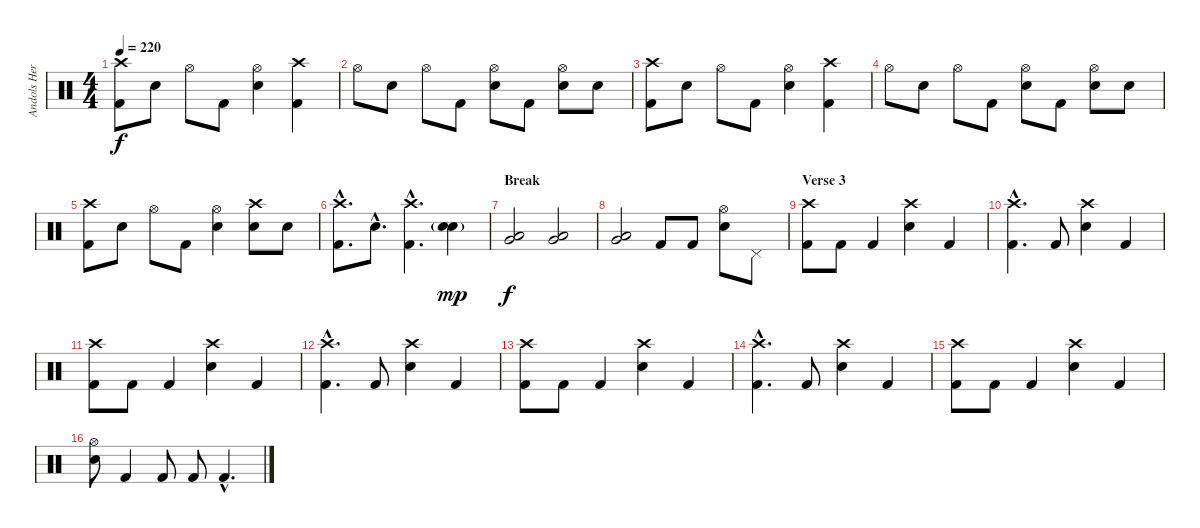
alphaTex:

\track ("Andols Herrick - Drums" "Andols Her") {instrument percussion}
\staff {score}
\articulation defaults
\ts (4 4)
\tempo 220
\clef neutral
\ks c
("Crash high (hit)" "Kick (hit) 2").8{dy f} "Snare (hit) 2".8 "Hi-Hat (open)".8 "Kick (hit) 2".8 ("Hi-Hat (open)" "Snare (hit) 2").4 ("Crash high (hit)" "Kick (hit) 2").4 |
"Hi-Hat (open)".8 "Snare (hit) 2".8 "Hi-Hat (open)".8 "Kick (hit) 2".8 ("Hi-Hat (open)" "Snare (hit) 2").8 "Kick (hit) 2".8 ("Hi-Hat (open)" "Snare (hit) 2").8 "Snare (hit) 2".8 |
("Crash high (hit)" "Kick (hit) 2").8 "Snare (hit) 2".8 "Hi-Hat (open)".8 "Kick (hit) 2".8 ("Hi-Hat (open)" "Snare (hit) 2").4 ("Crash high (hit)" "Kick (hit) 2").4 |
"Hi-Hat (open)".8 "Snare (hit) 2".8 "Hi-Hat (open)".8 "Kick (hit) 2".8 ("Hi-Hat (open)" "Snare (hit) 2").8 "Kick (hit) 2".8 ("Hi-Hat (open)" "Snare (hit) 2").8 "Snare (hit) 2".8 |
("Crash high (hit)" "Kick (hit) 2").8 "Snare (hit) 2".8 "Hi-Hat (open)".8 "Kick (hit) 2".8 ("Hi-Hat (open)" "Snare (hit) 2").4 ("Crash high (hit)" "Snare (hit) 2").8 "Snare (hit) 2".8 |
("Crash high (hit)"{hac} "Kick (hit) 2"{hac}).8{d} "Snare (hit) 2"{hac}.8{d} ("Crash high (hit)"{hac} "Kick (hit) 2"{hac}).4{d} ("Snare (hit) 2"{g} "Snare (hit) 2").4{dy mp} |
\section ("" "Break")
("Very Low Tom (hit)" "Low Floor Tom (hit)").2{dy f} ("Very Low Tom (hit)" "Low Floor Tom (hit)").2 |
("Very Low Tom (hit)" "Low Floor Tom (hit)").2 "Kick (hit) 2".8 "Kick (hit) 2".8 ("Hi-Hat (open)" "Snare (hit) 2").8 "Pedal Hi-Hat (hit)".8 |
\section ("" "Verse 3")
("Crash high (hit)" "Kick (hit) 2").8 "Kick (hit) 2".8 "Kick (hit) 2".4 ("Crash high (hit)" "Snare (hit) 2").4 "Kick (hit) 2".4 |
("Crash high (hit)"{hac} "Kick (hit) 2"{hac}).4{d} "Kick (hit) 2".8 ("Crash high (hit)" "Snare (hit) 2").4 "Kick (hit) 2".4 |
("Crash high (hit)" "Kick (hit) 2").8 "Kick (hit) 2".8 "Kick (hit) 2".4 ("Crash high (hit)" "Snare (hit) 2").4 "Kick (hit) 2".4 |
("Crash high (hit)"{hac} "Kick (hit) 2"{hac}).4{d} "Kick (hit) 2".8 ("Crash high (hit)" "Snare (hit) 2").4 "Kick (hit) 2".4 |
("Crash high (hit)" "Kick (hit) 2").8 "Kick (hit) 2".8 "Kick (hit) 2".4 ("Crash high (hit)" "Snare (hit) 2").4 "Kick (hit) 2".4 |
("Crash high (hit)"{hac} "Kick (hit) 2"{hac}).4{d} "Kick (hit) 2".8 ("Crash high (hit)" "Snare (hit) 2").4 "Kick (hit) 2".4 |
("Crash high (hit)" "Kick (hit) 2").8 "Kick (hit) 2".8 "Kick (hit) 2".4 ("Crash high (hit)" "Snare (hit) 2").4 "Kick (hit) 2".4 |
("Hi-Hat (open)" "Snare (hit) 2").8 "Kick (hit) 2".4 "Kick (hit) 2".8 "Kick (hit) 2".8 "Kick (hit) 2"{hac}.4{d}
